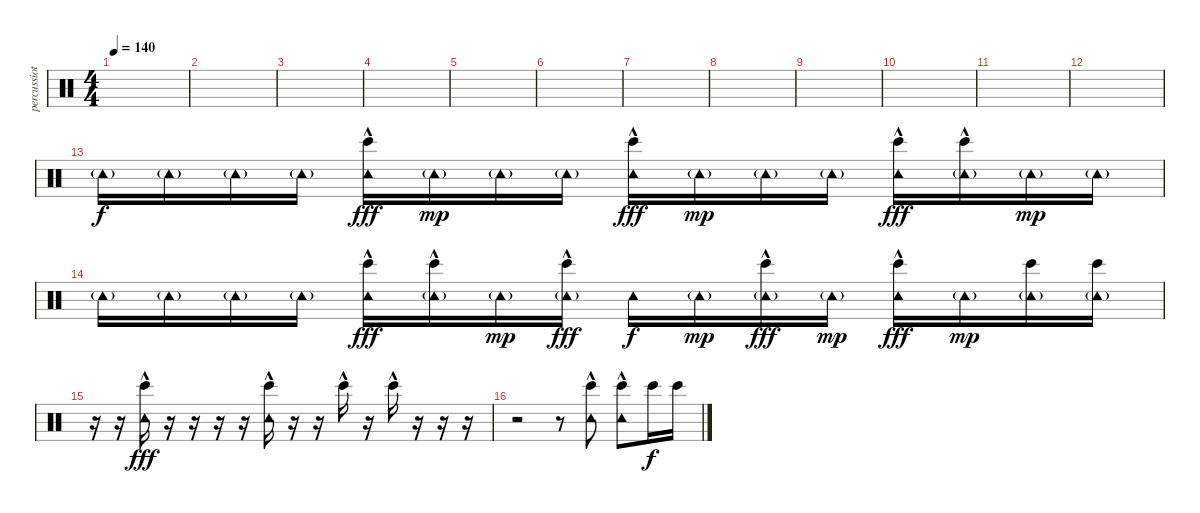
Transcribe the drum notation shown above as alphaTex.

\track ("percussiot" "percussiot") {instrument percussion}
\staff {score}
\articulation defaults
\ts (4 4)
\tempo 140
\clef neutral
\ks c
|
|
|
|
|
|
|
|
|
|
|
|
"Tambourine (hit)"{g}.16 "Tambourine (hit)"{g}.16 "Tambourine (hit)"{g}.16 "Tambourine (hit)"{g}.16 ("Tambourine (hit)" "Bongo High (hit)"{hac}).16{dy fff} "Tambourine (hit)"{g}.16{dy mp} "Tambourine (hit)"{g}.16 "Tambourine (hit)"{g}.16 ("Tambourine (hit)" "Bongo High (hit)"{hac}).16{dy fff} "Tambourine (hit)"{g}.16{dy mp} "Tambourine (hit)"{g}.16 "Tambourine (hit)"{g}.16 ("Tambourine (hit)" "Bongo High (hit)"{hac}).16{dy fff} ("Tambourine (hit)"{g} "Bongo High (hit)"{hac}).16 "Tambourine (hit)"{g}.16{dy mp} "Tambourine (hit)"{g}.16 |
"Tambourine (hit)"{g}.16 "Tambourine (hit)"{g}.16 "Tambourine (hit)"{g}.16 "Tambourine (hit)"{g}.16 ("Tambourine (hit)" "Bongo High (hit)"{hac}).16{dy fff} ("Tambourine (hit)"{g} "Bongo High (hit)"{hac}).16 "Tambourine (hit)"{g}.16{dy mp} ("Tambourine (hit)"{g} "Bongo High (hit)"{hac}).16{dy fff} "Tambourine (hit)".16{dy f} "Tambourine (hit)"{g}.16{dy mp} ("Tambourine (hit)"{g} "Bongo High (hit)"{hac}).16{dy fff} "Tambourine (hit)"{g}.16{dy mp} ("Tambourine (hit)" "Bongo High (hit)"{hac}).16{dy fff} "Tambourine (hit)"{g}.16{dy mp} ("Tambourine (hit)"{g} "Bongo High (hit)").16 ("Tambourine (hit)"{g} "Bongo High (hit)").16 |
r.16 r.16 ("Tambourine (hit)" "Bongo High (hit)"{hac}).16{dy fff} r.16 r.16 r.16 r.16 ("Tambourine (hit)" "Bongo High (hit)"{hac}).16 r.16 r.16 "Bongo High (hit)"{hac}.16 r.16 "Bongo High (hit)"{hac}.16 r.16 r.16 r.16 |
r.2 r.8 ("Tambourine (hit)" "Bongo High (hit)"{hac}).8 ("Tambourine (hit)" "Bongo High (hit)"{hac}).8 "Bongo High (hit)".16{dy f} "Bongo High (hit)".16
